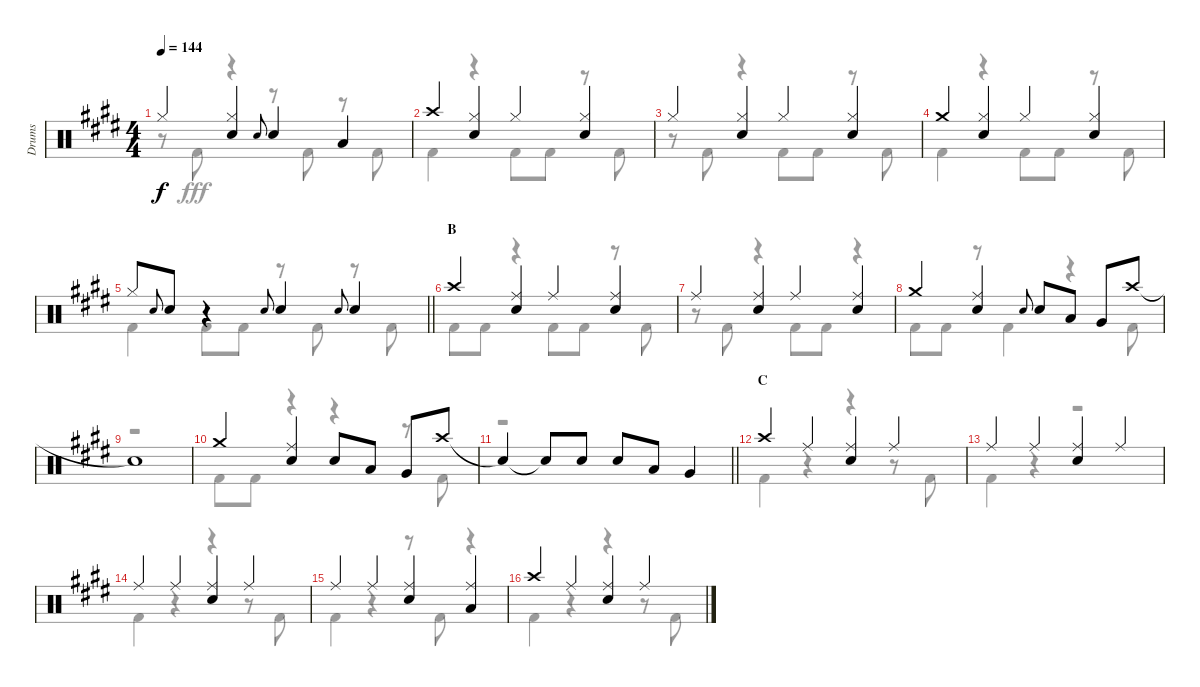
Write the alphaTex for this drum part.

\track ("Drums" "Drums") {instrument percussion}
\staff {score}
\articulation defaults
\voice
\ts (4 4)
\tempo 144
\clef neutral
\ks e "Hi-Hat (closed)".4{dy f}
("Hi-Hat (closed)" "Snare (hit) 2").4 "Snare (hit) 2".8{gr onbeat} "Snare (hit) 2".4 "Low Tom (hit)".4 |
"Crash high (hit)".4 ("Hi-Hat (closed)" "Snare (hit) 2").4 "Hi-Hat (closed)".4 ("Hi-Hat (closed)" "Snare (hit) 2").4 |
"Hi-Hat (closed)".4 ("Hi-Hat (closed)" "Snare (hit) 2").4 "Hi-Hat (closed)".4 ("Hi-Hat (closed)" "Snare (hit) 2").4 |
"Crash medium (hit)".4 ("Hi-Hat (closed)" "Snare (hit) 2").4 "Hi-Hat (closed)".4 ("Hi-Hat (closed)" "Snare (hit) 2").4 |
\barLineRight lightlight "Hi-Hat (closed)".8 "Snare (hit) 2".8{gr onbeat} "Snare (hit) 2".8
r.4 "Snare (hit) 2".8{gr onbeat} "Snare (hit) 2".4 "Snare (hit) 2".8{gr onbeat} "Snare (hit) 2".4 |
\section ("" "B")
"Crash high (hit)".4 ("Ride (middle)" "Snare (hit) 2").4 "Ride (middle)".4 ("Ride (middle)" "Snare (hit) 2").4 |
"Ride (middle)".4 ("Ride (middle)" "Snare (hit) 2").4 "Ride (middle)".4 ("Ride (middle)" "Snare (hit) 2").4 |
"Crash medium (hit)".4 ("Ride (middle)" "Snare (hit) 2").4 "Snare (hit) 2".8{gr onbeat} "Snare (hit) 2".8 "Low Tom (hit)".8 "Very Low Tom (hit)".8 "Crash high (hit)".8 |
"Snare (hit)"{t}.1 |
"Crash medium (hit)".4 ("Ride (middle)" "Snare (hit) 2").4 "Snare (hit) 2".8 "Low Tom (hit)".8 "Very Low Tom (hit)".8 "Crash high (hit)".8 |
\barLineRight lightlight "Snare (hit)"{t}.4 "Snare (hit)"{t}.8 "Snare (hit) 2".8 "Snare (hit) 2".8 "Low Tom (hit)".8 "Very Low Tom (hit)".4
|
\section ("" "C")
"Crash high (hit)".4 "Ride (middle)".4 ("Ride (middle)" "Snare (hit) 2").4 "Ride (middle)".4 |
"Ride (middle)".4 "Ride (middle)".4 ("Ride (middle)" "Snare (hit) 2").4 "Ride (middle)".4 |
"Ride (middle)".4 "Ride (middle)".4 ("Ride (middle)" "Snare (hit) 2").4 "Ride (middle)".4 |
"Ride (middle)".4 "Ride (middle)".4 ("Ride (middle)" "Snare (hit) 2").4 ("Ride (middle)" "Low Tom (hit)").4 |
"Crash high (hit)".4 "Ride (middle)".4 ("Ride (middle)" "Snare (hit) 2").4 "Ride (middle)".4
\voice
\clef neutral
\ottava regular
\simile none
\ks e
r.8{dy fff} "Kick (hit) 2".8 r.4 r.8 "Kick (hit) 2".8 r.8 "Kick (hit) 2".8 |
"Kick (hit) 2".4 r.4 "Kick (hit) 2".8 "Kick (hit) 2".8 r.8 "Kick (hit) 2".8 |
r.8 "Kick (hit) 2".8 r.4 "Kick (hit) 2".8 "Kick (hit) 2".8 r.8 "Kick (hit) 2".8 |
"Kick (hit) 2".4 r.4 "Kick (hit) 2".8 "Kick (hit) 2".8 r.8 "Kick (hit) 2".8 |
\barLineRight lightlight "Kick (hit) 2".4 "Kick (hit) 2".8 "Kick (hit) 2".8
r.8 "Kick (hit) 2".8 r.8 "Kick (hit) 2".8 |
"Kick (hit) 2".8 "Kick (hit) 2".8 r.4 "Kick (hit) 2".8 "Kick (hit) 2".8 r.8 "Kick (hit) 2".8 |
r.8 "Kick (hit) 2".8 r.4 "Kick (hit) 2".8 "Kick (hit) 2".8 r.4 |
"Kick (hit) 2".8 "Kick (hit) 2".8 r.8 "Kick (hit) 2".4 r.4 "Kick (hit) 2".8 |
r.1 |
"Kick (hit) 2".8 "Kick (hit) 2".8 r.4 r.4 r.8 "Kick (hit) 2".8 |
\barLineRight lightlight
r.1 |
"Kick (hit) 2".4 r.4 r.4 r.8 "Kick (hit) 2".8 |
"Kick (hit) 2".4 r.4 r.2 |
"Kick (hit) 2".4 r.4 r.4 r.8 "Kick (hit) 2".8 |
"Kick (hit) 2".4 r.4 r.8 "Kick (hit) 2".8 r.4 |
"Kick (hit) 2".4 r.4 r.4 r.8 "Kick (hit) 2".8
